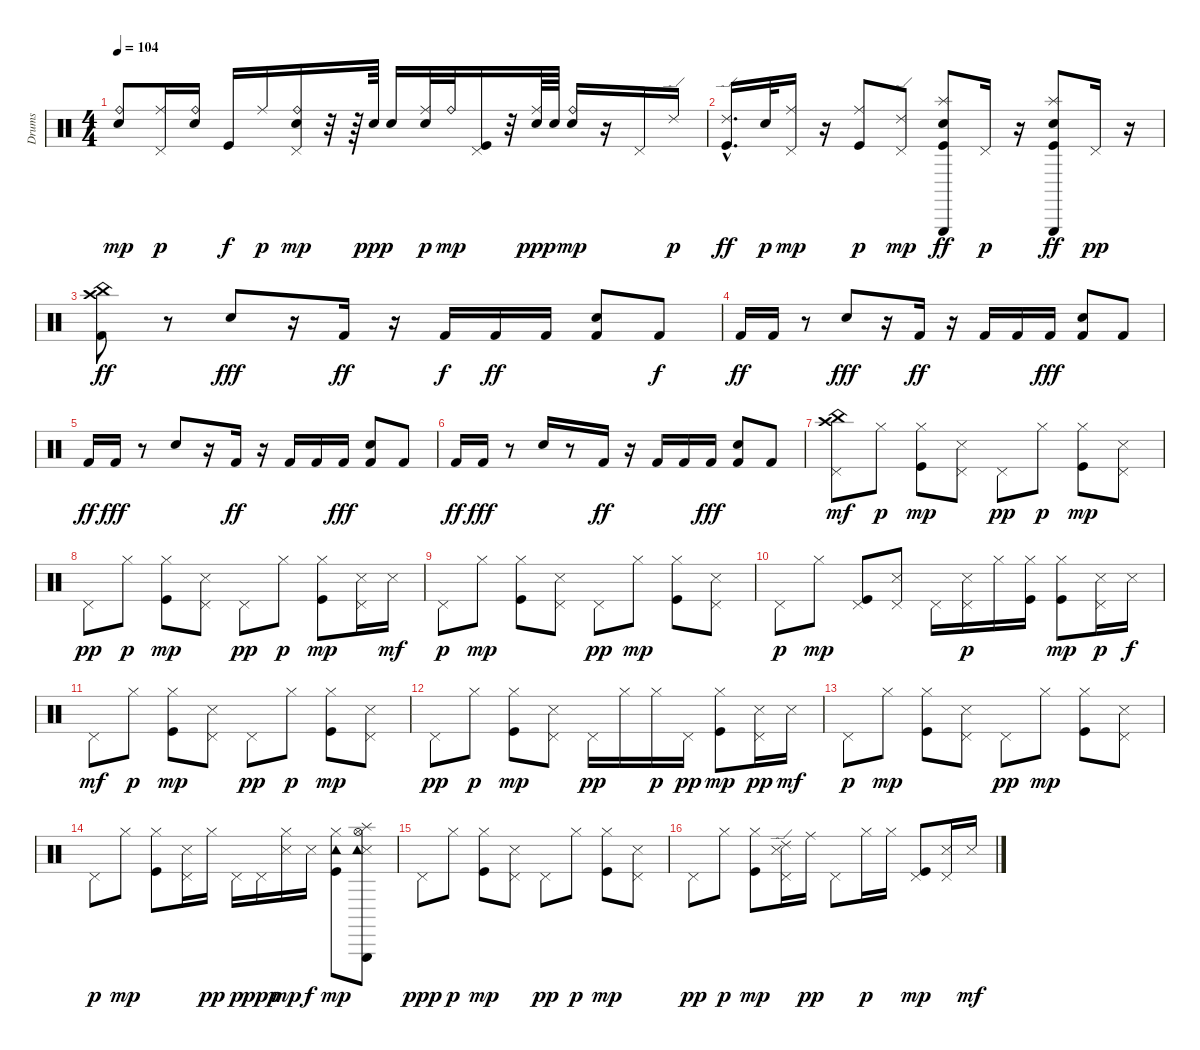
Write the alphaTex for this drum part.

\track ("Drums" "Drums") {instrument percussion}
\staff {score}
\articulation defaults
\ts (4 4)
\tempo 104
\clef neutral
\ks c
("Ride (bell)" "Electric Snare (hit)").8{dy mp} ("Pedal Hi-Hat (hit)" "Ride (middle)").16{dy p} ("Ride (bell)" "Electric Snare (hit)").16 "Kick (hit)".16{dy f} "Ride (middle)".16{dy p} ("Pedal Hi-Hat (hit)" "Ride (bell)" "Electric Snare (hit)").16{dy mp} r.32 r.64 "Electric Snare (hit)".64{dy ppp} "Electric Snare (hit)".16 ("Ride (middle)" "Electric Snare (hit)").32{dy p} "Ride (bell)".32{dy mp} ("Pedal Hi-Hat (hit)" "Kick (hit)").16 r.32 ("Ride (middle)" "Electric Snare (hit)").64{dy ppp} "Electric Snare (hit)".64 ("Ride (bell)" "Electric Snare (hit)").16{dy mp} r.16 "Pedal Hi-Hat (hit)".16 "Ride (edge) 2".16{dy p} |
("Ride (edge) 2"{hac} "Kick (hit)"{hac}).16{d dy ff} "Electric Snare (hit)".32{dy p} ("Pedal Hi-Hat (hit)" "Ride (middle)").16{dy mp} r.16 ("Ride (middle)" "Kick (hit)").8{dy p} ("Pedal Hi-Hat (hit)" "Ride (edge) 2").8{dy mp} ("Splash (hit)" "Electric Snare (hit)" "Triangle (hit)" "Kick (hit)").8{dy ff} "Pedal Hi-Hat (hit)".16{dy p} r.16 ("Splash (hit)" "Electric Snare (hit)" "Triangle (hit)" "Kick (hit)").8{dy ff} "Pedal Hi-Hat (hit)".16{dy pp} r.16 |
("Crash high (hit)" "China (hit)" "Kick (hit) 2").8{dy ff} r.8 "Snare (hit) 2".8{dy fff} r.16 "Kick (hit) 2".16{dy ff} r.16 "Kick (hit) 2".16{dy f} "Kick (hit) 2".16{dy ff} "Kick (hit) 2".16 ("Snare (hit) 2" "Kick (hit) 2").8 "Kick (hit) 2".8{dy f} |
"Kick (hit) 2".16{dy ff} "Kick (hit) 2".16 r.8 "Snare (hit) 2".8{dy fff} r.16 "Kick (hit) 2".16{dy ff} r.16 "Kick (hit) 2".16 "Kick (hit) 2".16 "Kick (hit) 2".16{dy fff} ("Snare (hit) 2" "Kick (hit) 2").8 "Kick (hit) 2".8 |
"Kick (hit) 2".16{dy ff} "Kick (hit) 2".16{dy fff} r.8 "Snare (hit) 2".8 r.16 "Kick (hit) 2".16{dy ff} r.16 "Kick (hit) 2".16 "Kick (hit) 2".16 "Kick (hit) 2".16{dy fff} ("Snare (hit) 2" "Kick (hit) 2").8 "Kick (hit) 2".8 |
"Kick (hit) 2".16{dy ff} "Kick (hit) 2".16{dy fff} r.8 "Snare (hit) 2".16 r.8 "Kick (hit) 2".16{dy ff} r.16 "Kick (hit) 2".16 "Kick (hit) 2".16 "Kick (hit) 2".16{dy fff} ("Snare (hit) 2" "Kick (hit) 2").8 "Kick (hit) 2".8 |
("Pedal Hi-Hat (hit)" "Crash high (hit)" "China (hit)").8{dy mf} "Hi-Hat (closed)".8{dy p} ("Hi-Hat (closed)" "Kick (hit)").8{dy mp} ("Pedal Hi-Hat (hit)" "Snare (side stick) 3").8 "Pedal Hi-Hat (hit)".8{dy pp} "Hi-Hat (closed)".8{dy p} ("Hi-Hat (closed)" "Kick (hit)").8{dy mp} ("Pedal Hi-Hat (hit)" "Snare (side stick) 3").8 |
"Pedal Hi-Hat (hit)".8{dy pp} "Hi-Hat (closed)".8{dy p} ("Hi-Hat (closed)" "Kick (hit)").8{dy mp} ("Pedal Hi-Hat (hit)" "Snare (side stick) 3").8 "Pedal Hi-Hat (hit)".8{dy pp} "Hi-Hat (closed)".8{dy p} ("Hi-Hat (closed)" "Kick (hit)").8{dy mp} ("Pedal Hi-Hat (hit)" "Snare (side stick) 3").16 "Snare (side stick) 3".16{dy mf} |
"Pedal Hi-Hat (hit)".8{dy p} "Hi-Hat (closed)".8{dy mp} ("Hi-Hat (closed)" "Kick (hit)").8 ("Pedal Hi-Hat (hit)" "Snare (side stick) 3").8 "Pedal Hi-Hat (hit)".8{dy pp} "Hi-Hat (closed)".8{dy mp} ("Hi-Hat (closed)" "Kick (hit)").8 ("Pedal Hi-Hat (hit)" "Snare (side stick) 3").8 |
"Pedal Hi-Hat (hit)".8{dy p} "Hi-Hat (closed)".8{dy mp} ("Pedal Hi-Hat (hit)" "Kick (hit)").8 ("Pedal Hi-Hat (hit)" "Snare (side stick) 3").8 "Pedal Hi-Hat (hit)".16 ("Pedal Hi-Hat (hit)" "Snare (side stick) 3").16{dy p} "Hi-Hat (closed)".16 ("Hi-Hat (closed)" "Kick (hit)").16 ("Hi-Hat (closed)" "Kick (hit)").8{dy mp} ("Pedal Hi-Hat (hit)" "Snare (side stick) 3").16{dy p} "Snare (side stick) 3".16{dy f} |
"Pedal Hi-Hat (hit)".8{dy mf} "Hi-Hat (closed)".8{dy p} ("Hi-Hat (closed)" "Kick (hit)").8{dy mp} ("Pedal Hi-Hat (hit)" "Snare (side stick) 3").8 "Pedal Hi-Hat (hit)".8{dy pp} "Hi-Hat (closed)".8{dy p} ("Hi-Hat (closed)" "Kick (hit)").8{dy mp} ("Pedal Hi-Hat (hit)" "Snare (side stick) 3").8 |
"Pedal Hi-Hat (hit)".8{dy pp} "Hi-Hat (closed)".8{dy p} ("Hi-Hat (closed)" "Kick (hit)").8{dy mp} ("Pedal Hi-Hat (hit)" "Snare (side stick) 3").8 "Pedal Hi-Hat (hit)".16{dy pp} "Hi-Hat (closed)".16 "Hi-Hat (closed)".16{dy p} "Pedal Hi-Hat (hit)".16{dy pp} ("Hi-Hat (closed)" "Kick (hit)").8{dy mp} ("Pedal Hi-Hat (hit)" "Snare (side stick) 3").16{dy pp} "Snare (side stick) 3".16{dy mf} |
"Pedal Hi-Hat (hit)".8{dy p} "Hi-Hat (closed)".8{dy mp} ("Hi-Hat (closed)" "Kick (hit)").8 ("Pedal Hi-Hat (hit)" "Snare (side stick) 3").8 "Pedal Hi-Hat (hit)".8{dy pp} "Hi-Hat (closed)".8{dy mp} ("Hi-Hat (closed)" "Kick (hit)").8 ("Pedal Hi-Hat (hit)" "Snare (side stick) 3").8 |
"Pedal Hi-Hat (hit)".8{dy p} "Hi-Hat (closed)".8{dy mp} ("Hi-Hat (closed)" "Kick (hit)").8 ("Pedal Hi-Hat (hit)" "Snare (side stick) 3").16 "Hi-Hat (closed)".16{dy pp} "Pedal Hi-Hat (hit)".16{dy p} "Pedal Hi-Hat (hit)".16{dy ppp} ("Hi-Hat (closed)" "Snare (side stick) 3").16{dy mp} "Snare (side stick) 3".16{dy f} ("Hi-Hat (closed)" "Tambourine (hit)" "Kick (hit)").8{dy mp} ("Hi-Hat (open)" "Splash (hit)" "Snare (side stick) 3" "Tambourine (hit)" "Triangle (hit)").8 |
"Pedal Hi-Hat (hit)".8{dy ppp} "Hi-Hat (closed)".8{dy p} ("Hi-Hat (closed)" "Kick (hit)").8{dy mp} ("Pedal Hi-Hat (hit)" "Snare (side stick) 3").8 "Pedal Hi-Hat (hit)".8{dy pp} "Hi-Hat (closed)".8{dy p} ("Hi-Hat (closed)" "Kick (hit)").8{dy mp} ("Pedal Hi-Hat (hit)" "Snare (side stick) 3").8 |
"Pedal Hi-Hat (hit)".8{dy pp} "Hi-Hat (closed)".8{dy p} ("Hi-Hat (closed)" "Kick (hit)").8{dy mp} ("Pedal Hi-Hat (hit)" "Ride (edge) 2" "Snare (side stick) 3").16 "Ride (middle)".16{dy pp} "Pedal Hi-Hat (hit)".8 "Hi-Hat (closed)".16{dy p} "Hi-Hat (closed)".16 ("Pedal Hi-Hat (hit)" "Kick (hit)").8{dy mp} ("Pedal Hi-Hat (hit)" "Snare (side stick) 3").16 "Snare (side stick) 3".16{dy mf}
